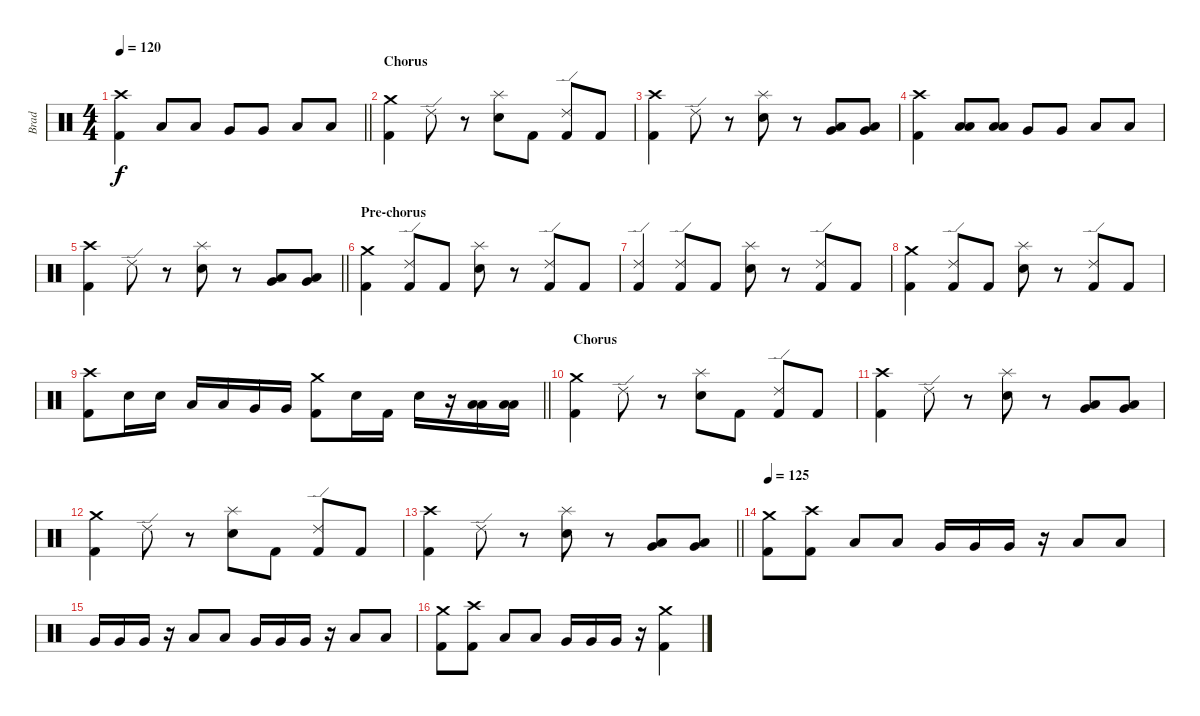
\track ("Brad" "Brad") {instrument percussion}
\staff {score}
\articulation defaults
\ts (4 4)
\tempo 120
\clef neutral
\barLineRight lightlight
\ks c
("Crash high (hit)" "Kick (hit) 2").4{dy f} "Low Floor Tom (hit)".8 "Low Floor Tom (hit)".8 "Very Low Tom (hit)".8 "Very Low Tom (hit)".8 "Low Tom (hit)".8 "Low Tom (hit)".8 |
\section ("" "Chorus")
("Crash medium (hit)" "Kick (hit) 2").4 "Ride (edge) 2".8 r.8 ("Splash (hit)" "Electric Snare (hit)").8 "Kick (hit) 2".8 ("Ride (edge) 2" "Kick (hit) 2").8 "Kick (hit) 2".8 |
("Crash high (hit)" "Kick (hit) 2").4 "Ride (edge) 2".8 r.8 ("Splash (hit)" "Electric Snare (hit)").8 r.8 ("Low Tom (hit)" "Very Low Tom (hit)").8 ("Low Tom (hit)" "Very Low Tom (hit)").8 |
("Crash high (hit)" "Kick (hit) 2").4 ("Low Tom (hit)" "Low Floor Tom (hit)").8 ("Low Tom (hit)" "Low Floor Tom (hit)").8 "Very Low Tom (hit)".8 "Very Low Tom (hit)".8 "Low Floor Tom (hit)".8 "Low Floor Tom (hit)".8 |
\barLineRight lightlight
("Crash high (hit)" "Kick (hit) 2").4 "Ride (edge) 2".8 r.8 ("Splash (hit)" "Electric Snare (hit)").8 r.8 ("Low Tom (hit)" "Very Low Tom (hit)").8 ("Low Tom (hit)" "Very Low Tom (hit)").8 |
\section ("" "Pre-chorus")
("Crash medium (hit)" "Kick (hit) 2").4 ("Ride (edge) 2" "Kick (hit) 2").8 "Kick (hit) 2".8 ("Splash (hit)" "Electric Snare (hit)").8 r.8 ("Ride (edge) 2" "Kick (hit) 2").8 "Kick (hit) 2".8 |
("Ride (edge) 2" "Kick (hit) 2").4 ("Ride (edge) 2" "Kick (hit) 2").8 "Kick (hit) 2".8 ("Splash (hit)" "Electric Snare (hit)").8 r.8 ("Ride (edge) 2" "Kick (hit) 2").8 "Kick (hit) 2".8 |
("Crash medium (hit)" "Kick (hit) 2").4 ("Ride (edge) 2" "Kick (hit) 2").8 "Kick (hit) 2".8 ("Splash (hit)" "Electric Snare (hit)").8 r.8 ("Ride (edge) 2" "Kick (hit) 2").8 "Kick (hit) 2".8 |
\barLineRight lightlight
("Crash high (hit)" "Kick (hit) 2").8 "Electric Snare (hit)".16 "Electric Snare (hit)".16 "Low Tom (hit)".16 "Low Tom (hit)".16 "Very Low Tom (hit)".16 "Very Low Tom (hit)".16 ("Crash medium (hit)" "Kick (hit) 2").8 "Electric Snare (hit)".16 "Kick (hit) 2".16 "Electric Snare (hit)".16 r.16 ("Low Floor Tom (hit)" "Low Tom (hit)").16 ("Low Floor Tom (hit)" "Low Tom (hit)").16 |
\section ("" " Chorus")
("Crash medium (hit)" "Kick (hit) 2").4 "Ride (edge) 2".8 r.8 ("Splash (hit)" "Electric Snare (hit)").8 "Kick (hit) 2".8 ("Ride (edge) 2" "Kick (hit) 2").8 "Kick (hit) 2".8 |
("Crash high (hit)" "Kick (hit) 2").4 "Ride (edge) 2".8 r.8 ("Splash (hit)" "Electric Snare (hit)").8 r.8 ("Low Tom (hit)" "Very Low Tom (hit)").8 ("Low Tom (hit)" "Very Low Tom (hit)").8 |
("Crash medium (hit)" "Kick (hit) 2").4 "Ride (edge) 2".8 r.8 ("Splash (hit)" "Electric Snare (hit)").8 "Kick (hit) 2".8 ("Ride (edge) 2" "Kick (hit) 2").8 "Kick (hit) 2".8 |
\barLineRight lightlight
("Crash high (hit)" "Kick (hit) 2").4 "Ride (edge) 2".8 r.8 ("Splash (hit)" "Electric Snare (hit)").8 r.8 ("Low Tom (hit)" "Very Low Tom (hit)").8 ("Low Tom (hit)" "Very Low Tom (hit)").8 |
\tempo 125
("Crash medium (hit)" "Kick (hit) 2").8 ("Crash high (hit)" "Kick (hit) 2").8 "Low Tom (hit)".8 "Low Tom (hit)".8 "Very Low Tom (hit)".16 "Very Low Tom (hit)".16 "Very Low Tom (hit)".16 r.16 "Low Tom (hit)".8 "Low Tom (hit)".8 |
"Very Low Tom (hit)".16 "Very Low Tom (hit)".16 "Very Low Tom (hit)".16 r.16 "Low Tom (hit)".8 "Low Tom (hit)".8 "Very Low Tom (hit)".16 "Very Low Tom (hit)".16 "Very Low Tom (hit)".16 r.16 "Low Tom (hit)".8 "Low Tom (hit)".8 |
("Crash medium (hit)" "Kick (hit) 2").8 ("Crash high (hit)" "Kick (hit) 2").8 "Low Tom (hit)".8 "Low Tom (hit)".8 "Very Low Tom (hit)".16 "Very Low Tom (hit)".16 "Very Low Tom (hit)".16 r.16 ("Crash medium (hit)" "Kick (hit) 2").4
